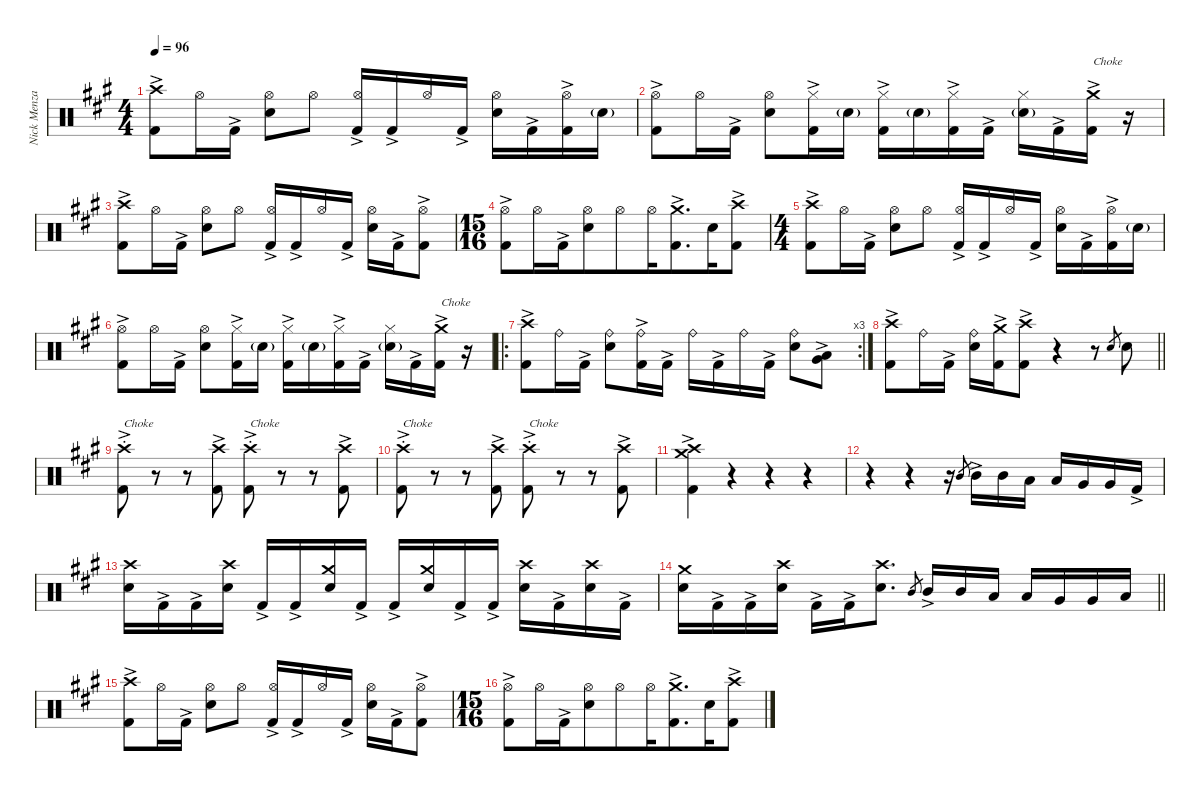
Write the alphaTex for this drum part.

\defaultSystemsLayout 4
\hideDynamics
\bracketExtendMode nobrackets
\firstSystemTrackNameMode fullname
\otherSystemsTrackNameOrientation horizontal
\track ("Nick Menza" "drm.") {instrument percussion}
\staff {score}
\articulation defaults
\ts (4 4)
\beaming (8 2 2 2 2)
\tempo 96
\clef neutral
\ks f#minor
("Crash high (hit)"{acc forcenatural} "Kick (hit) 2"{ac acc forcenatural}).8{dy f beam Down} "Hi-Hat (open)"{acc forcenatural}.16{beam Down} "Kick (hit) 2"{ac acc forcenatural}.16{dy ff beam Down} ("Hi-Hat (open)"{acc forcenatural} "Snare (hit) 2"{acc forcenatural}).8{dy f beam Down} "Hi-Hat (open)"{acc forcenatural}.8{beam Down} ("Hi-Hat (open)"{acc forcenatural} "Kick (hit) 2"{ac acc forcenatural}).16{beam Up} "Kick (hit) 2"{ac acc forcenatural}.16{dy ff beam Up} "Hi-Hat (open)"{acc forcenatural}.16{dy f beam Up} "Kick (hit) 2"{ac acc forcenatural}.16{dy ff beam Up} ("Hi-Hat (open)"{acc forcenatural} "Snare (hit) 2"{acc forcenatural}).16{dy f beam Down} "Kick (hit) 2"{ac acc forcenatural}.16{dy ff beam Down} ("Hi-Hat (open)"{acc forcenatural} "Kick (hit) 2"{ac acc forcenatural}).16{dy f beam Down} "Snare (hit) 2"{g acc forcenatural}.16{dy mf beam Down} |
("Hi-Hat (open)"{acc forcenatural} "Kick (hit) 2"{ac acc forcenatural}).8{dy f beam Down} "Hi-Hat (open)"{acc forcenatural}.16{beam Down} "Kick (hit) 2"{ac acc forcenatural}.16{dy ff beam Down} ("Hi-Hat (open)"{acc forcenatural} "Snare (hit) 2"{acc forcenatural}).8{dy f beam Down} ("Hi-Hat (closed)"{acc forcenatural} "Kick (hit) 2"{ac acc forcenatural}).16{beam Down} "Snare (hit) 2"{g acc forcenatural}.16{dy mf beam Down} ("Hi-Hat (closed)"{acc forcenatural} "Kick (hit) 2"{ac acc forcenatural}).16{dy f beam Down} "Snare (hit) 2"{g acc forcenatural}.16{dy mf beam Down} ("Hi-Hat (closed)"{acc forcenatural} "Kick (hit) 2"{ac acc forcenatural}).16{dy f beam Down} "Kick (hit) 2"{ac acc forcenatural}.16{dy ff beam Down} ("Hi-Hat (closed)"{acc forcenatural} "Snare (hit) 2"{g acc forcenatural}).16{dy f beam Down} "Kick (hit) 2"{ac acc forcenatural}.16{dy ff beam Down} ("Crash medium (hit)"{acc forcenatural} "Kick (hit) 2"{ac acc forcenatural}).16{txt "Choke" dy f beam Down} r.16{beam Down} |
("Crash high (hit)"{acc forcenatural} "Kick (hit) 2"{ac acc forcenatural}).8{beam Down} "Hi-Hat (open)"{acc forcenatural}.16{beam Down} "Kick (hit) 2"{ac acc forcenatural}.16{dy ff beam Down} ("Hi-Hat (open)"{acc forcenatural} "Snare (hit) 2"{acc forcenatural}).8{dy f beam Down} "Hi-Hat (open)"{acc forcenatural}.8{beam Down} ("Hi-Hat (open)"{acc forcenatural} "Kick (hit) 2"{ac acc forcenatural}).16{beam Up} "Kick (hit) 2"{ac acc forcenatural}.16{dy ff beam Up} "Hi-Hat (open)"{acc forcenatural}.16{dy f beam Up} "Kick (hit) 2"{ac acc forcenatural}.16{dy ff beam Up} ("Hi-Hat (open)"{acc forcenatural} "Snare (hit) 2"{acc forcenatural}).16{dy f beam Down} "Kick (hit) 2"{ac acc forcenatural}.16{dy ff beam Down} ("Hi-Hat (open)"{acc forcenatural} "Kick (hit) 2"{ac acc forcenatural}).8{dy f beam Down} |
\ts (15 16)
\beaming (8 7)
("Hi-Hat (open)"{acc forcenatural} "Kick (hit) 2"{ac acc forcenatural}).8{beam Down} "Hi-Hat (open)"{acc forcenatural}.16{beam Down} "Kick (hit) 2"{ac acc forcenatural}.16{dy ff beam Down} ("Hi-Hat (open)"{acc forcenatural} "Snare (hit) 2"{acc forcenatural}).8{dy f beam Down} "Hi-Hat (open)"{acc forcenatural}.8{beam Down} "Hi-Hat (open)"{acc forcenatural}.16{beam Down} ("Crash medium (hit)"{acc forcenatural} "Kick (hit) 2"{ac acc forcenatural}).8{d beam Down} "Snare (hit) 2"{acc forcenatural}.16{beam Down} ("Crash high (hit)"{acc forcenatural} "Kick (hit) 2"{ac acc forcenatural}).8{beam Down} |
\ts (4 4)
\beaming (8 2 2 2 2)
("Crash high (hit)"{acc forcenatural} "Kick (hit) 2"{ac acc forcenatural}).8{beam Down} "Hi-Hat (open)"{acc forcenatural}.16{beam Down} "Kick (hit) 2"{ac acc forcenatural}.16{dy ff beam Down} ("Hi-Hat (open)"{acc forcenatural} "Snare (hit) 2"{acc forcenatural}).8{dy f beam Down} "Hi-Hat (open)"{acc forcenatural}.8{beam Down} ("Hi-Hat (open)"{acc forcenatural} "Kick (hit) 2"{ac acc forcenatural}).16{beam Up} "Kick (hit) 2"{ac acc forcenatural}.16{dy ff beam Up} "Hi-Hat (open)"{acc forcenatural}.16{dy f beam Up} "Kick (hit) 2"{ac acc forcenatural}.16{dy ff beam Up} ("Hi-Hat (open)"{acc forcenatural} "Snare (hit) 2"{acc forcenatural}).16{dy f beam Down} "Kick (hit) 2"{ac acc forcenatural}.16{dy ff beam Down} ("Hi-Hat (open)"{acc forcenatural} "Kick (hit) 2"{ac acc forcenatural}).16{dy f beam Down} "Snare (hit) 2"{g acc forcenatural}.16{dy mf beam Down} |
("Hi-Hat (open)"{acc forcenatural} "Kick (hit) 2"{ac acc forcenatural}).8{dy f beam Down} "Hi-Hat (open)"{acc forcenatural}.16{beam Down} "Kick (hit) 2"{ac acc forcenatural}.16{dy ff beam Down} ("Hi-Hat (open)"{acc forcenatural} "Snare (hit) 2"{acc forcenatural}).8{dy f beam Down} ("Hi-Hat (closed)"{acc forcenatural} "Kick (hit) 2"{ac acc forcenatural}).16{beam Down} "Snare (hit) 2"{g acc forcenatural}.16{dy mf beam Down} ("Hi-Hat (closed)"{acc forcenatural} "Kick (hit) 2"{ac acc forcenatural}).16{dy f beam Down} "Snare (hit) 2"{g acc forcenatural}.16{dy mf beam Down} ("Hi-Hat (closed)"{acc forcenatural} "Kick (hit) 2"{ac acc forcenatural}).16{dy f beam Down} "Kick (hit) 2"{ac acc forcenatural}.16{dy ff beam Down} ("Hi-Hat (closed)"{acc forcenatural} "Snare (hit) 2"{g acc forcenatural}).16{dy f beam Down} "Kick (hit) 2"{ac acc forcenatural}.16{dy ff beam Down} ("Crash medium (hit)"{acc forcenatural} "Kick (hit) 2"{ac acc forcenatural}).16{txt "Choke" dy f beam Down} r.16{beam Down} |
\ro
\rc 3
("Crash high (hit)"{acc forcenatural} "Kick (hit) 2"{ac acc forcenatural}).8{beam Down} "Ride (bell)"{acc forcenatural}.16{beam Down} "Kick (hit) 2"{ac acc forcenatural}.16{dy ff beam Down} ("Ride (bell)"{acc forcenatural} "Snare (hit) 2"{acc forcenatural}).8{dy f beam Down} ("Ride (bell)"{acc forcenatural} "Kick (hit) 2"{ac acc forcenatural}).16{beam Down} "Kick (hit) 2"{ac acc forcenatural}.16{dy ff beam Down} "Ride (bell)"{acc forcenatural}.16{dy f beam Down} "Kick (hit) 2"{ac acc forcenatural}.16{dy ff beam Down} "Ride (bell)"{acc forcenatural}.16{dy f beam Down} "Kick (hit) 2"{ac acc forcenatural}.16{dy ff beam Down} ("Ride (bell)"{acc forcenatural} "Snare (hit) 2"{acc forcenatural}).8{dy f beam Down} ("Low Tom (hit)"{ac acc forcenatural} "Very Low Tom (hit)"{ac acc forcenatural}).8{dy ff beam Down} |
\barLineRight lightlight
("Crash high (hit)"{acc forcenatural} "Kick (hit) 2"{ac acc forcenatural}).8{dy f beam Down} "Ride (bell)"{acc forcenatural}.16{beam Down} "Kick (hit) 2"{ac acc forcenatural}.16{dy ff beam Down} ("Ride (bell)"{acc forcenatural} "Snare (hit) 2"{acc forcenatural}).16{dy f beam Down} ("Crash medium (hit)"{acc forcenatural} "Kick (hit) 2"{ac acc forcenatural}).16{beam Down} ("Crash high (hit)"{acc forcenatural} "Kick (hit) 2"{ac acc forcenatural}).8{beam Down} r.4{beam Down} r.8{beam Down} "Snare (hit) 2"{acc forcenatural}.8{gr dy mf beam Up} "Snare (hit) 2"{acc forcenatural}.8{dy f beam Down} |
("Crash high (hit)"{st acc forcenatural} "Kick (hit) 2"{ac acc forcenatural}).8{txt "Choke " beam Down} r.8{beam Down} r.8{beam Down} ("Crash high (hit)"{acc forcenatural} "Kick (hit) 2"{ac acc forcenatural}).8{beam Down} ("Crash high (hit)"{st acc forcenatural} "Kick (hit) 2"{ac acc forcenatural}).8{txt "Choke" beam Down} r.8{beam Down} r.8{beam Down} ("Crash high (hit)"{acc forcenatural} "Kick (hit) 2"{ac acc forcenatural}).8{beam Down} |
("Crash high (hit)"{st acc forcenatural} "Kick (hit) 2"{ac acc forcenatural}).8{txt "Choke" beam Down} r.8{beam Down} r.8{beam Down} ("Crash high (hit)"{acc forcenatural} "Kick (hit) 2"{ac acc forcenatural}).8{beam Down} ("Crash high (hit)"{st acc forcenatural} "Kick (hit) 2"{ac acc forcenatural}).8{txt "Choke" beam Down} r.8{beam Down} r.8{beam Down} ("Crash high (hit)"{acc forcenatural} "Kick (hit) 2"{ac acc forcenatural}).8{beam Down} |
("Crash high (hit)"{acc forcenatural} "Crash medium (hit)"{acc forcenatural} "Kick (hit) 2"{ac acc forcenatural}).4{beam Down} r.4{beam Down} r.4{beam Down} r.4{beam Down} |
r.4{beam Down} r.4{beam Down} r.16{beam Down} "Mid Tom (hit)"{acc forcenatural}.8{gr dy pp beam Up} "Mid Tom (hit)"{ac acc forcenatural}.16{dy ff beam Up} "Mid Tom (hit)"{acc forcenatural}.16{dy f beam Up} "Low Tom (hit)"{acc forcenatural}.16{beam Up} "Low Tom (hit)"{acc forcenatural}.16{beam Up} "Very Low Tom (hit)"{acc forcenatural}.16{beam Up} "Very Low Tom (hit)"{acc forcenatural}.16{beam Up} "Kick (hit) 2"{ac acc forcenatural}.16{dy ff beam Up} |
("Crash high (hit)"{acc forcenatural} "Snare (hit) 2"{acc forcenatural}).16{dy f beam Down} "Kick (hit) 2"{ac acc forcenatural}.16{dy ff beam Down} "Kick (hit) 2"{ac acc forcenatural}.16{beam Down} ("Crash high (hit)"{acc forcenatural} "Snare (hit) 2"{acc forcenatural}).16{dy f beam Down} "Kick (hit) 2"{ac acc forcenatural}.16{dy ff beam Up} "Kick (hit) 2"{ac acc forcenatural}.16{beam Up} ("Crash medium (hit)"{acc forcenatural} "Snare (hit) 2"{acc forcenatural}).16{dy f beam Up} "Kick (hit) 2"{ac acc forcenatural}.16{dy ff beam Up} "Kick (hit) 2"{ac acc forcenatural}.16{beam Up} ("Crash medium (hit)"{acc forcenatural} "Snare (hit) 2"{acc forcenatural}).16{dy f beam Up} "Kick (hit) 2"{ac acc forcenatural}.16{dy ff beam Up} "Kick (hit) 2"{ac acc forcenatural}.16{beam Up} ("Crash high (hit)"{acc forcenatural} "Snare (hit) 2"{acc forcenatural}).16{dy f beam Down} "Kick (hit) 2"{ac acc forcenatural}.16{dy ff beam Down} ("Crash high (hit)"{acc forcenatural} "Snare (hit) 2"{acc forcenatural}).16{dy f beam Down} "Kick (hit) 2"{ac acc forcenatural}.16{dy ff beam Down} |
\barLineRight lightlight
("Crash medium (hit)"{acc forcenatural} "Snare (hit) 2"{acc forcenatural}).16{dy f beam Down} "Kick (hit) 2"{ac acc forcenatural}.16{dy ff beam Down} "Kick (hit) 2"{ac acc forcenatural}.16{beam Down} ("Crash high (hit)"{acc forcenatural} "Snare (hit) 2"{acc forcenatural}).16{dy f beam Down} "Kick (hit) 2"{ac acc forcenatural}.16{dy ff beam Down} "Kick (hit) 2"{ac acc forcenatural}.16{beam Down} ("Crash high (hit)"{acc forcenatural} "Snare (hit) 2"{acc forcenatural}).8{d dy f beam Down} "Mid Tom (hit)"{acc forcenatural}.8{gr dy ppp beam Up} "Mid Tom (hit)"{ac acc forcenatural}.16{dy ff beam Up} "Mid Tom (hit)"{acc forcenatural}.16{dy f beam Up} "Low Tom (hit)"{acc forcenatural}.16{beam Up} "Low Tom (hit)"{acc forcenatural}.16{beam Up} "Very Low Tom (hit)"{acc forcenatural}.16{beam Up} "Very Low Tom (hit)"{acc forcenatural}.16{beam Up} "Low Floor Tom (hit)"{acc forcenatural}.16{beam Up} |
("Crash high (hit)"{acc forcenatural} "Kick (hit) 2"{ac acc forcenatural}).8{beam Down} "Hi-Hat (open)"{acc forcenatural}.16{beam Down} "Kick (hit) 2"{ac acc forcenatural}.16{dy ff beam Down} ("Hi-Hat (open)"{acc forcenatural} "Snare (hit) 2"{acc forcenatural}).8{dy f beam Down} "Hi-Hat (open)"{acc forcenatural}.8{beam Down} ("Hi-Hat (open)"{acc forcenatural} "Kick (hit) 2"{ac acc forcenatural}).16{beam Up} "Kick (hit) 2"{ac acc forcenatural}.16{dy ff beam Up} "Hi-Hat (open)"{acc forcenatural}.16{dy f beam Up} "Kick (hit) 2"{ac acc forcenatural}.16{dy ff beam Up} ("Hi-Hat (open)"{acc forcenatural} "Snare (hit) 2"{acc forcenatural}).16{dy f beam Down} "Kick (hit) 2"{ac acc forcenatural}.16{dy ff beam Down} ("Hi-Hat (open)"{acc forcenatural} "Kick (hit) 2"{ac acc forcenatural}).8{dy f beam Down} |
\ts (15 16)
\beaming (8 7)
("Hi-Hat (open)"{acc forcenatural} "Kick (hit) 2"{ac acc forcenatural}).8{beam Down} "Hi-Hat (open)"{acc forcenatural}.16{beam Down} "Kick (hit) 2"{ac acc forcenatural}.16{dy ff beam Down} ("Hi-Hat (open)"{acc forcenatural} "Snare (hit) 2"{acc forcenatural}).8{dy f beam Down} "Hi-Hat (open)"{acc forcenatural}.8{beam Down} "Hi-Hat (open)"{acc forcenatural}.16{beam Down} ("Crash medium (hit)"{acc forcenatural} "Kick (hit) 2"{ac acc forcenatural}).8{d beam Down} "Snare (hit) 2"{acc forcenatural}.16{beam Down} ("Crash high (hit)"{acc forcenatural} "Kick (hit) 2"{ac acc forcenatural}).8{beam Down}
